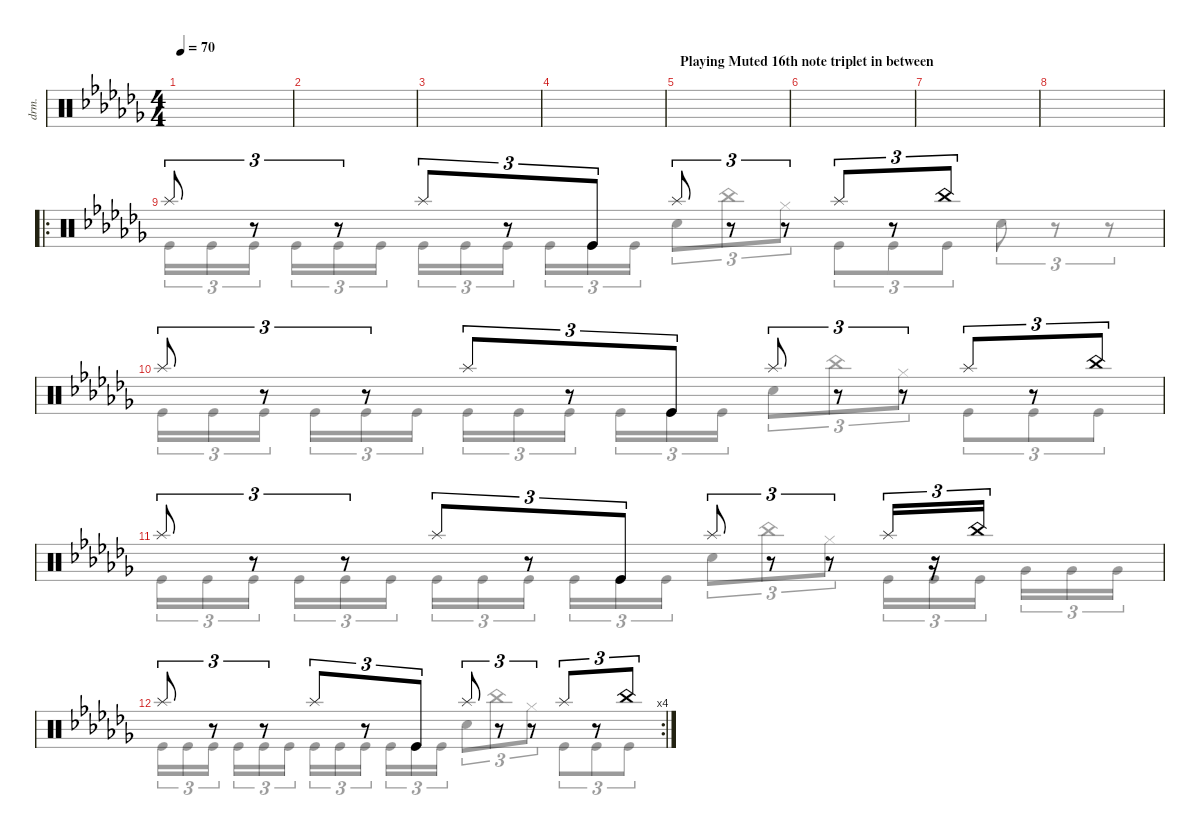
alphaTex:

\defaultSystemsLayout 4
\hideDynamics
\bracketExtendMode nobrackets
\track ("Drumkit" "drm.") {instrument percussion}
\staff {score}
\articulation defaults
\voice
\ts (4 4)
\section ("" "")
\tempo 70
\clef neutral
\ks abminor
|
|
|
|
\section ("" "Playing Muted 16th note triplet in between")
|
|
|
|
\ro "Splash (hit)"{acc forcenatural}.8{tu (3 2)}
r.8{tu (3 2)} r.8{tu (3 2)} "Splash (hit)"{acc forcenatural}.8{tu (3 2)} r.8{tu (3 2)} "Kick (hit)"{acc forcenatural}.8{tu (3 2)} "Splash (hit)"{acc forcenatural}.8{tu (3 2)} r.8{tu (3 2)} r.8{tu (3 2)} "Splash (hit)"{acc forcenatural}.8{tu (3 2)} r.8{tu (3 2)} "China (hit)"{acc forcenatural}.8{tu (3 2)} |
"Splash (hit)"{acc forcenatural}.8{tu (3 2)} r.8{tu (3 2)} r.8{tu (3 2)} "Splash (hit)"{acc forcenatural}.8{tu (3 2)} r.8{tu (3 2)} "Kick (hit)"{acc forcenatural}.8{tu (3 2)} "Splash (hit)"{acc forcenatural}.8{tu (3 2)} r.8{tu (3 2)} r.8{tu (3 2)} "Splash (hit)"{acc forcenatural}.8{tu (3 2)} r.8{tu (3 2)} "China (hit)"{acc forcenatural}.8{tu (3 2)} |
"Splash (hit)"{acc forcenatural}.8{tu (3 2)} r.8{tu (3 2)} r.8{tu (3 2)} "Splash (hit)"{acc forcenatural}.8{tu (3 2)} r.8{tu (3 2)} "Kick (hit)"{acc forcenatural}.8{tu (3 2)} "Splash (hit)"{acc forcenatural}.8{tu (3 2)} r.8{tu (3 2)} r.8{tu (3 2)} "Splash (hit)"{acc forcenatural}.16{tu (3 2)} r.16{tu (3 2)} "China (hit)"{acc forcenatural}.16{tu (3 2)} |
\rc 4 "Splash (hit)"{acc forcenatural}.8{tu (3 2) beam Up}
r.8{tu (3 2) beam Up} r.8{tu (3 2) beam Up} "Splash (hit)"{acc forcenatural}.8{tu (3 2) beam Up} r.8{tu (3 2) beam Up} "Kick (hit)"{acc forcenatural}.8{tu (3 2) beam Up} "Splash (hit)"{acc forcenatural}.8{tu (3 2) beam Up} r.8{tu (3 2) beam Up} r.8{tu (3 2) beam Up} "Splash (hit)"{acc forcenatural}.8{tu (3 2) beam Up} r.8{tu (3 2) beam Up} "China (hit)"{acc forcenatural}.8{tu (3 2) beam Up}
\voice
\clef neutral
\ottava regular
\simile none
\ks abminor
|
|
|
|
|
|
|
|
"Kick (hit)"{acc forcenatural}.16{tu (3 2)} "Kick (hit)"{acc forcenatural}.16{tu (3 2)} "Kick (hit)"{acc forcenatural}.16{tu (3 2)} "Kick (hit)"{acc forcenatural}.16{tu (3 2)} "Kick (hit)"{acc forcenatural}.16{tu (3 2)} "Kick (hit)"{acc forcenatural}.16{tu (3 2)} "Kick (hit)"{acc forcenatural}.16{tu (3 2)} "Kick (hit)"{acc forcenatural}.16{tu (3 2)} "Kick (hit)"{acc forcenatural}.16{tu (3 2)} "Kick (hit)"{acc forcenatural}.16{tu (3 2)} "Kick (hit)"{acc forcenatural}.16{tu (3 2)} "Kick (hit)"{acc forcenatural}.16{tu (3 2)} "Snare (hit) 2"{acc forcenatural}.8{tu (3 2)} "China (hit)"{acc forcenatural}.8{tu (3 2)} "Hi-Hat (closed)"{acc forcenatural}.8{tu (3 2)} "Kick (hit)"{acc forcenatural}.8{tu (3 2)} "Kick (hit)"{acc forcenatural}.8{tu (3 2)} "Kick (hit)"{acc forcenatural}.8{tu (3 2)} "Snare (hit) 2"{acc forcenatural}.8{tu (3 2)} r.8{tu (3 2)} r.8{tu (3 2)} |
"Kick (hit)"{acc forcenatural}.16{tu (3 2)} "Kick (hit)"{acc forcenatural}.16{tu (3 2)} "Kick (hit)"{acc forcenatural}.16{tu (3 2)} "Kick (hit)"{acc forcenatural}.16{tu (3 2)} "Kick (hit)"{acc forcenatural}.16{tu (3 2)} "Kick (hit)"{acc forcenatural}.16{tu (3 2)} "Kick (hit)"{acc forcenatural}.16{tu (3 2)} "Kick (hit)"{acc forcenatural}.16{tu (3 2)} "Kick (hit)"{acc forcenatural}.16{tu (3 2)} "Kick (hit)"{acc forcenatural}.16{tu (3 2)} "Kick (hit)"{acc forcenatural}.16{tu (3 2)} "Kick (hit)"{acc forcenatural}.16{tu (3 2)} "Snare (hit) 2"{acc forcenatural}.8{tu (3 2)} "China (hit)"{acc forcenatural}.8{tu (3 2)} "Hi-Hat (closed)"{acc forcenatural}.8{tu (3 2)} "Kick (hit)"{acc forcenatural}.8{tu (3 2)} "Kick (hit)"{acc forcenatural}.8{tu (3 2)} "Kick (hit)"{acc forcenatural}.8{tu (3 2)} |
"Kick (hit)"{acc forcenatural}.16{tu (3 2)} "Kick (hit)"{acc forcenatural}.16{tu (3 2)} "Kick (hit)"{acc forcenatural}.16{tu (3 2)} "Kick (hit)"{acc forcenatural}.16{tu (3 2)} "Kick (hit)"{acc forcenatural}.16{tu (3 2)} "Kick (hit)"{acc forcenatural}.16{tu (3 2)} "Kick (hit)"{acc forcenatural}.16{tu (3 2)} "Kick (hit)"{acc forcenatural}.16{tu (3 2)} "Kick (hit)"{acc forcenatural}.16{tu (3 2)} "Kick (hit)"{acc forcenatural}.16{tu (3 2)} "Kick (hit)"{acc forcenatural}.16{tu (3 2)} "Kick (hit)"{acc forcenatural}.16{tu (3 2)} "Snare (hit) 2"{acc forcenatural}.8{tu (3 2)} "China (hit)"{acc forcenatural}.8{tu (3 2)} "Hi-Hat (closed)"{acc forcenatural}.8{tu (3 2)} "Kick (hit)"{acc forcenatural}.16{tu (3 2)} "Kick (hit)"{acc forcenatural}.16{tu (3 2)} "Kick (hit)"{acc forcenatural}.16{tu (3 2)} "Very Low Tom (hit)"{acc forcenatural}.16{tu (3 2)} "Very Low Tom (hit)"{acc forcenatural}.16{tu (3 2)} "Very Low Tom (hit)"{acc forcenatural}.16{tu (3 2)} |
"Kick (hit)"{acc forcenatural}.16{tu (3 2) beam Down} "Kick (hit)"{acc forcenatural}.16{tu (3 2) beam Down} "Kick (hit)"{acc forcenatural}.16{tu (3 2) beam Down} "Kick (hit)"{acc forcenatural}.16{tu (3 2) beam Down} "Kick (hit)"{acc forcenatural}.16{tu (3 2) beam Down} "Kick (hit)"{acc forcenatural}.16{tu (3 2) beam Down} "Kick (hit)"{acc forcenatural}.16{tu (3 2) beam Down} "Kick (hit)"{acc forcenatural}.16{tu (3 2) beam Down} "Kick (hit)"{acc forcenatural}.16{tu (3 2) beam Down} "Kick (hit)"{acc forcenatural}.16{tu (3 2) beam Down} "Kick (hit)"{acc forcenatural}.16{tu (3 2) beam Down} "Kick (hit)"{acc forcenatural}.16{tu (3 2) beam Down} "Snare (hit) 2"{acc forcenatural}.8{tu (3 2) beam Down} "China (hit)"{acc forcenatural}.8{tu (3 2) beam Down} "Hi-Hat (closed)"{acc forcenatural}.8{tu (3 2) beam Down} "Kick (hit)"{acc forcenatural}.8{tu (3 2) beam Down} "Kick (hit)"{acc forcenatural}.8{tu (3 2) beam Down} "Kick (hit)"{acc forcenatural}.8{tu (3 2) beam Down}
